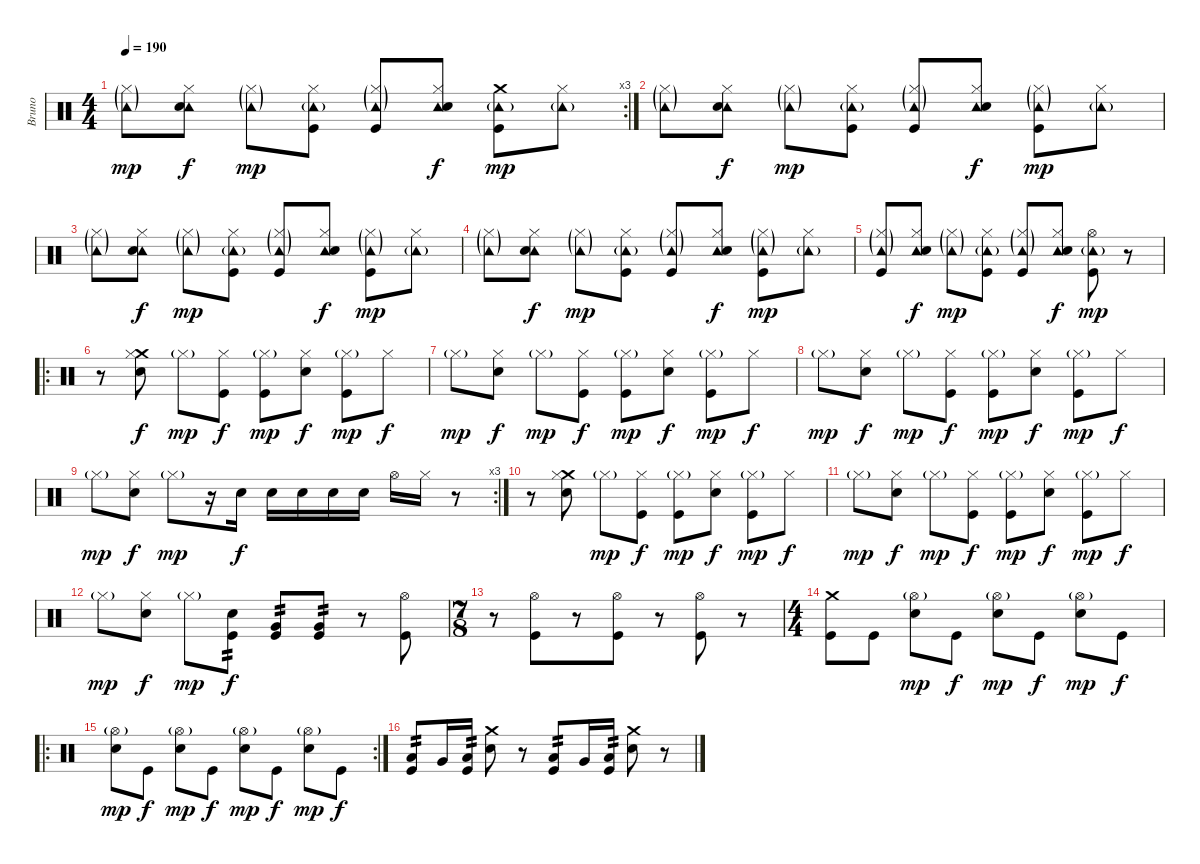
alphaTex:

\track ("Bruno" "Bruno") {instrument percussion}
\staff {score}
\articulation defaults
\rc 3
\ts (4 4)
\tempo 190
\clef neutral
\ks c
("Tambourine (hit)"{g} "Hi-Hat (closed)"{g}).8{dy mp} ("Tambourine (hit)" "Hi-Hat (closed)" "Electric Snare (hit)").8{dy f} ("Tambourine (hit)"{g} "Hi-Hat (closed)"{g}).8{dy mp} ("Tambourine (hit)"{g} "Hi-Hat (closed)" "Kick (hit)").8 ("Tambourine (hit)"{g} "Hi-Hat (closed)"{g} "Kick (hit)").8 ("Tambourine (hit)" "Hi-Hat (closed)" "Electric Snare (hit)").8{dy f} ("Tambourine (hit)"{g} "Crash medium (hit)" "Kick (hit)").8{dy mp} ("Tambourine (hit)"{g} "Hi-Hat (closed)").8 |
("Tambourine (hit)"{g} "Hi-Hat (closed)"{g}).8 ("Tambourine (hit)" "Hi-Hat (closed)" "Electric Snare (hit)").8{dy f} ("Tambourine (hit)"{g} "Hi-Hat (closed)"{g}).8{dy mp} ("Tambourine (hit)"{g} "Hi-Hat (closed)" "Kick (hit)").8 ("Tambourine (hit)"{g} "Hi-Hat (closed)"{g} "Kick (hit)").8 ("Tambourine (hit)" "Hi-Hat (closed)" "Electric Snare (hit)").8{dy f} ("Tambourine (hit)"{g} "Hi-Hat (closed)"{g} "Kick (hit)").8{dy mp} ("Tambourine (hit)"{g} "Hi-Hat (closed)").8 |
("Tambourine (hit)"{g} "Hi-Hat (closed)"{g}).8 ("Tambourine (hit)" "Hi-Hat (closed)" "Electric Snare (hit)").8{dy f} ("Tambourine (hit)"{g} "Hi-Hat (closed)"{g}).8{dy mp} ("Tambourine (hit)"{g} "Hi-Hat (closed)" "Kick (hit)").8 ("Tambourine (hit)"{g} "Hi-Hat (closed)"{g} "Kick (hit)").8 ("Tambourine (hit)" "Hi-Hat (closed)" "Electric Snare (hit)").8{dy f} ("Tambourine (hit)"{g} "Hi-Hat (closed)"{g} "Kick (hit)").8{dy mp} ("Tambourine (hit)"{g} "Hi-Hat (closed)").8 |
("Tambourine (hit)"{g} "Hi-Hat (closed)"{g}).8 ("Tambourine (hit)" "Hi-Hat (closed)" "Electric Snare (hit)").8{dy f} ("Tambourine (hit)"{g} "Hi-Hat (closed)"{g}).8{dy mp} ("Tambourine (hit)"{g} "Hi-Hat (closed)" "Kick (hit)").8 ("Tambourine (hit)"{g} "Hi-Hat (closed)"{g} "Kick (hit)").8 ("Tambourine (hit)" "Hi-Hat (closed)" "Electric Snare (hit)").8{dy f} ("Tambourine (hit)"{g} "Hi-Hat (closed)"{g} "Kick (hit)").8{dy mp} ("Tambourine (hit)"{g} "Hi-Hat (closed)").8 |
("Tambourine (hit)"{g} "Hi-Hat (closed)"{g} "Kick (hit)").8 ("Tambourine (hit)" "Hi-Hat (closed)" "Electric Snare (hit)").8{dy f} ("Tambourine (hit)"{g} "Hi-Hat (closed)"{g}).8{dy mp} ("Tambourine (hit)"{g} "Hi-Hat (closed)" "Kick (hit)").8 ("Tambourine (hit)"{g} "Hi-Hat (closed)"{g} "Kick (hit)").8 ("Tambourine (hit)" "Hi-Hat (closed)" "Electric Snare (hit)").8{dy f} ("Tambourine (hit)"{g} "Hi-Hat (open)" "Kick (hit)").8{dy mp} r.8 |
\ro
r.8 ("Crash medium (hit)" "Hi-Hat (closed)" "Electric Snare (hit)").8{dy f} "Hi-Hat (closed)"{g}.8{dy mp} ("Hi-Hat (closed)" "Kick (hit)").8{dy f} ("Hi-Hat (closed)"{g} "Kick (hit)").8{dy mp} ("Hi-Hat (closed)" "Electric Snare (hit)").8{dy f} ("Hi-Hat (closed)"{g} "Kick (hit)").8{dy mp} "Hi-Hat (closed)".8{dy f} |
"Hi-Hat (closed)"{g}.8{dy mp} ("Hi-Hat (closed)" "Electric Snare (hit)").8{dy f} "Hi-Hat (closed)"{g}.8{dy mp} ("Hi-Hat (closed)" "Kick (hit)").8{dy f} ("Hi-Hat (closed)"{g} "Kick (hit)").8{dy mp} ("Hi-Hat (closed)" "Electric Snare (hit)").8{dy f} ("Hi-Hat (closed)"{g} "Kick (hit)").8{dy mp} "Hi-Hat (closed)".8{dy f} |
"Hi-Hat (closed)"{g}.8{dy mp} ("Hi-Hat (closed)" "Electric Snare (hit)").8{dy f} "Hi-Hat (closed)"{g}.8{dy mp} ("Hi-Hat (closed)" "Kick (hit)").8{dy f} ("Hi-Hat (closed)"{g} "Kick (hit)").8{dy mp} ("Hi-Hat (closed)" "Electric Snare (hit)").8{dy f} ("Hi-Hat (closed)"{g} "Kick (hit)").8{dy mp} "Hi-Hat (closed)".8{dy f} |
\rc 3 "Hi-Hat (closed)"{g}.8{dy mp}
("Hi-Hat (closed)" "Electric Snare (hit)").8{dy f} "Hi-Hat (closed)"{g}.8{dy mp} r.16 "Electric Snare (hit)".16{dy f} "Electric Snare (hit)".16 "Electric Snare (hit)".16 "Electric Snare (hit)".16 "Electric Snare (hit)".16 "Hi-Hat (open)".16 "Hi-Hat (closed)".16 r.8 |
r.8 ("Crash medium (hit)" "Hi-Hat (closed)" "Electric Snare (hit)").8 "Hi-Hat (closed)"{g}.8{dy mp} ("Hi-Hat (closed)" "Kick (hit)").8{dy f} ("Hi-Hat (closed)"{g} "Kick (hit)").8{dy mp} ("Hi-Hat (closed)" "Electric Snare (hit)").8{dy f} ("Hi-Hat (closed)"{g} "Kick (hit)").8{dy mp} "Hi-Hat (closed)".8{dy f} |
"Hi-Hat (closed)"{g}.8{dy mp} ("Hi-Hat (closed)" "Electric Snare (hit)").8{dy f} "Hi-Hat (closed)"{g}.8{dy mp} ("Hi-Hat (closed)" "Kick (hit)").8{dy f} ("Hi-Hat (closed)"{g} "Kick (hit)").8{dy mp} ("Hi-Hat (closed)" "Electric Snare (hit)").8{dy f} ("Hi-Hat (closed)"{g} "Kick (hit)").8{dy mp} "Hi-Hat (closed)".8{dy f} |
"Hi-Hat (closed)"{g}.8{dy mp} ("Hi-Hat (closed)" "Electric Snare (hit)").8{dy f} "Hi-Hat (closed)"{g}.8{dy mp} ("Electric Snare (hit)" "Kick (hit)").8{tp 2 dy f} ("Very Low Tom (hit)" "Kick (hit)").8{tp 2} ("Very Low Tom (hit)" "Kick (hit)").8{tp 2} r.8 ("Hi-Hat (open)" "Kick (hit)").8 |
\ts (7 8)
r.8 ("Hi-Hat (open)" "Kick (hit)").8 r.8 ("Hi-Hat (open)" "Kick (hit)").8 r.8 ("Hi-Hat (open)" "Kick (hit)").8 r.8 |
\ts (4 4)
("Crash medium (hit)" "Kick (hit)").8 "Kick (hit)".8 ("Hi-Hat (open)"{g} "Electric Snare (hit)").8{dy mp} "Kick (hit)".8{dy f} ("Hi-Hat (open)"{g} "Electric Snare (hit)").8{dy mp} "Kick (hit)".8{dy f} ("Hi-Hat (open)"{g} "Electric Snare (hit)").8{dy mp} "Kick (hit)".8{dy f} |
\ro
\rc 2
("Hi-Hat (open)"{g} "Electric Snare (hit)").8{dy mp} "Kick (hit)".8{dy f} ("Hi-Hat (open)"{g} "Electric Snare (hit)").8{dy mp} "Kick (hit)".8{dy f} ("Hi-Hat (open)"{g} "Electric Snare (hit)").8{dy mp} "Kick (hit)".8{dy f} ("Hi-Hat (open)"{g} "Electric Snare (hit)").8{dy mp} "Kick (hit)".8{dy f} |
("Low Tom (hit)" "Kick (hit)").8{tp 2} "Very Low Tom (hit)".16 ("Low Floor Tom (hit)" "Kick (hit)").16{tp 2} ("Electric Snare (hit)" "Crash medium (hit)").8 r.8 ("Low Tom (hit)" "Kick (hit)").8{tp 2} "Very Low Tom (hit)".16 ("Low Floor Tom (hit)" "Kick (hit)").16{tp 2} ("Electric Snare (hit)" "Crash medium (hit)").8 r.8
